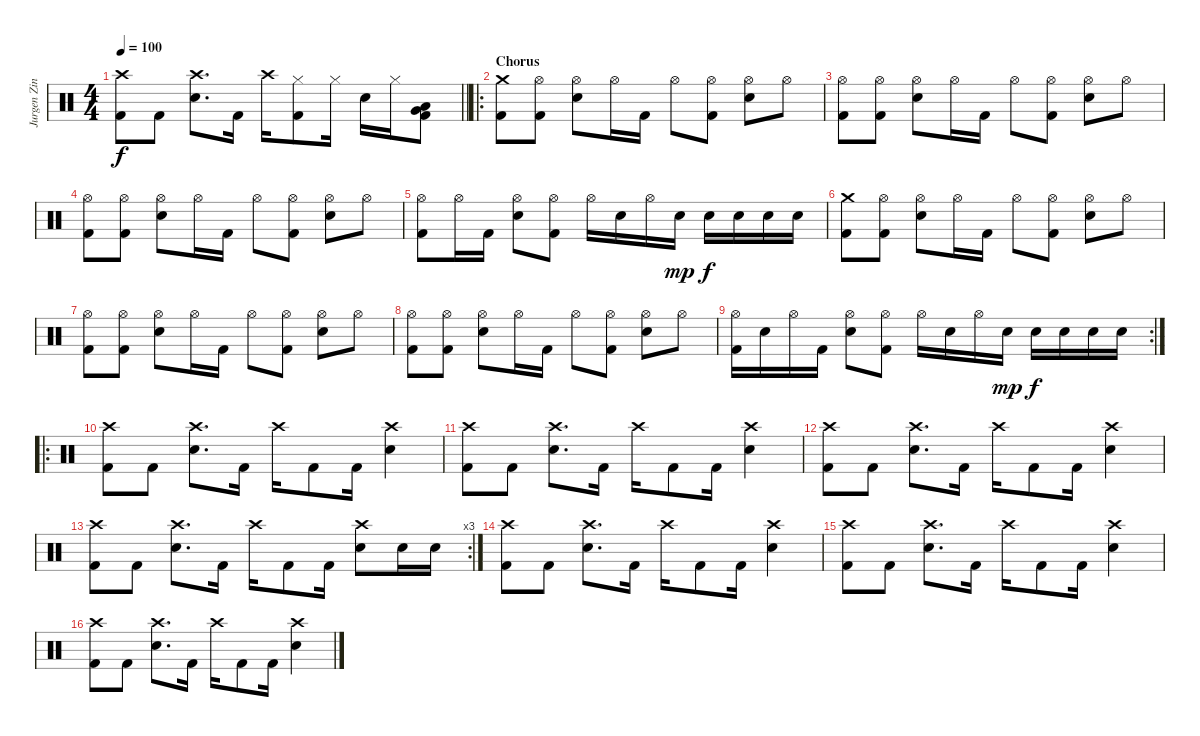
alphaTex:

\track ("Jurgen Zing" "Jurgen Zin") {instrument percussion}
\staff {score}
\articulation defaults
\ts (4 4)
\tempo 100
\clef neutral
\barLineRight lightlight
\ks c
("Crash high (hit)" "Kick (hit) 2").8{dy f} "Kick (hit) 2".8 ("Crash high (hit)" "Electric Snare (hit)").8{d} "Kick (hit) 2".16 "Crash high (hit)".16 ("Hi-Hat (closed)" "Kick (hit) 2").8 "Hi-Hat (closed)".16 "Electric Snare (hit)".16 "Hi-Hat (closed)".16 ("Very Low Tom (hit)" "Low Floor Tom (hit)" "Kick (hit) 2").8 |
\ro
\section ("" "Chorus")
("Crash medium (hit)" "Kick (hit) 2").8 ("Hi-Hat (open)" "Kick (hit) 2").8 ("Hi-Hat (open)" "Electric Snare (hit)").8 "Hi-Hat (open)".16 "Kick (hit) 2".16 "Hi-Hat (open)".8 ("Hi-Hat (open)" "Kick (hit) 2").8 ("Hi-Hat (open)" "Electric Snare (hit)").8 "Hi-Hat (open)".8 |
("Hi-Hat (open)" "Kick (hit) 2").8 ("Hi-Hat (open)" "Kick (hit) 2").8 ("Hi-Hat (open)" "Electric Snare (hit)").8 "Hi-Hat (open)".16 "Kick (hit) 2".16 "Hi-Hat (open)".8 ("Hi-Hat (open)" "Kick (hit) 2").8 ("Hi-Hat (open)" "Electric Snare (hit)").8 "Hi-Hat (open)".8 |
("Hi-Hat (open)" "Kick (hit) 2").8 ("Hi-Hat (open)" "Kick (hit) 2").8 ("Hi-Hat (open)" "Electric Snare (hit)").8 "Hi-Hat (open)".16 "Kick (hit) 2".16 "Hi-Hat (open)".8 ("Hi-Hat (open)" "Kick (hit) 2").8 ("Hi-Hat (open)" "Electric Snare (hit)").8 "Hi-Hat (open)".8 |
("Hi-Hat (open)" "Kick (hit) 2").8 "Hi-Hat (open)".16 "Kick (hit) 2".16 ("Hi-Hat (open)" "Electric Snare (hit)").8 ("Hi-Hat (open)" "Kick (hit) 2").8 "Hi-Hat (open)".16 "Electric Snare (hit)".16 "Hi-Hat (open)".16 "Electric Snare (hit)".16{dy mp} "Electric Snare (hit)".16{dy f} "Electric Snare (hit)".16 "Electric Snare (hit)".16 "Electric Snare (hit)".16 |
("Crash medium (hit)" "Kick (hit) 2").8 ("Hi-Hat (open)" "Kick (hit) 2").8 ("Hi-Hat (open)" "Electric Snare (hit)").8 "Hi-Hat (open)".16 "Kick (hit) 2".16 "Hi-Hat (open)".8 ("Hi-Hat (open)" "Kick (hit) 2").8 ("Hi-Hat (open)" "Electric Snare (hit)").8 "Hi-Hat (open)".8 |
("Hi-Hat (open)" "Kick (hit) 2").8 ("Hi-Hat (open)" "Kick (hit) 2").8 ("Hi-Hat (open)" "Electric Snare (hit)").8 "Hi-Hat (open)".16 "Kick (hit) 2".16 "Hi-Hat (open)".8 ("Hi-Hat (open)" "Kick (hit) 2").8 ("Hi-Hat (open)" "Electric Snare (hit)").8 "Hi-Hat (open)".8 |
("Hi-Hat (open)" "Kick (hit) 2").8 ("Hi-Hat (open)" "Kick (hit) 2").8 ("Hi-Hat (open)" "Electric Snare (hit)").8 "Hi-Hat (open)".16 "Kick (hit) 2".16 "Hi-Hat (open)".8 ("Hi-Hat (open)" "Kick (hit) 2").8 ("Hi-Hat (open)" "Electric Snare (hit)").8 "Hi-Hat (open)".8 |
\rc 2
("Hi-Hat (open)" "Kick (hit) 2").16 "Electric Snare (hit)".16 "Hi-Hat (open)".16 "Kick (hit) 2".16 ("Hi-Hat (open)" "Electric Snare (hit)").8 ("Hi-Hat (open)" "Kick (hit) 2").8 "Hi-Hat (open)".16 "Electric Snare (hit)".16 "Hi-Hat (open)".16 "Electric Snare (hit)".16{dy mp} "Electric Snare (hit)".16{dy f} "Electric Snare (hit)".16 "Electric Snare (hit)".16 "Electric Snare (hit)".16 |
\ro
("Crash high (hit)" "Kick (hit) 2").8 "Kick (hit) 2".8 ("Crash high (hit)" "Electric Snare (hit)").8{d} "Kick (hit) 2".16 "Crash high (hit)".16 "Kick (hit) 2".8 "Kick (hit) 2".16 ("Crash high (hit)" "Electric Snare (hit)").4 |
("Crash high (hit)" "Kick (hit) 2").8 "Kick (hit) 2".8 ("Crash high (hit)" "Electric Snare (hit)").8{d} "Kick (hit) 2".16 "Crash high (hit)".16 "Kick (hit) 2".8 "Kick (hit) 2".16 ("Crash high (hit)" "Electric Snare (hit)").4 |
("Crash high (hit)" "Kick (hit) 2").8 "Kick (hit) 2".8 ("Crash high (hit)" "Electric Snare (hit)").8{d} "Kick (hit) 2".16 "Crash high (hit)".16 "Kick (hit) 2".8 "Kick (hit) 2".16 ("Crash high (hit)" "Electric Snare (hit)").4 |
\rc 3
("Crash high (hit)" "Kick (hit) 2").8 "Kick (hit) 2".8 ("Crash high (hit)" "Electric Snare (hit)").8{d} "Kick (hit) 2".16 "Crash high (hit)".16 "Kick (hit) 2".8 "Kick (hit) 2".16 ("Crash high (hit)" "Electric Snare (hit)").8 "Electric Snare (hit)".16 "Electric Snare (hit)".16 |
("Crash high (hit)" "Kick (hit) 2").8 "Kick (hit) 2".8 ("Crash high (hit)" "Electric Snare (hit)").8{d} "Kick (hit) 2".16 "Crash high (hit)".16 "Kick (hit) 2".8 "Kick (hit) 2".16 ("Crash high (hit)" "Electric Snare (hit)").4 |
("Crash high (hit)" "Kick (hit) 2").8 "Kick (hit) 2".8 ("Crash high (hit)" "Electric Snare (hit)").8{d} "Kick (hit) 2".16 "Crash high (hit)".16 "Kick (hit) 2".8 "Kick (hit) 2".16 ("Crash high (hit)" "Electric Snare (hit)").4 |
("Crash high (hit)" "Kick (hit) 2").8 "Kick (hit) 2".8 ("Crash high (hit)" "Electric Snare (hit)").8{d} "Kick (hit) 2".16 "Crash high (hit)".16 "Kick (hit) 2".8 "Kick (hit) 2".16 ("Crash high (hit)" "Electric Snare (hit)").4
